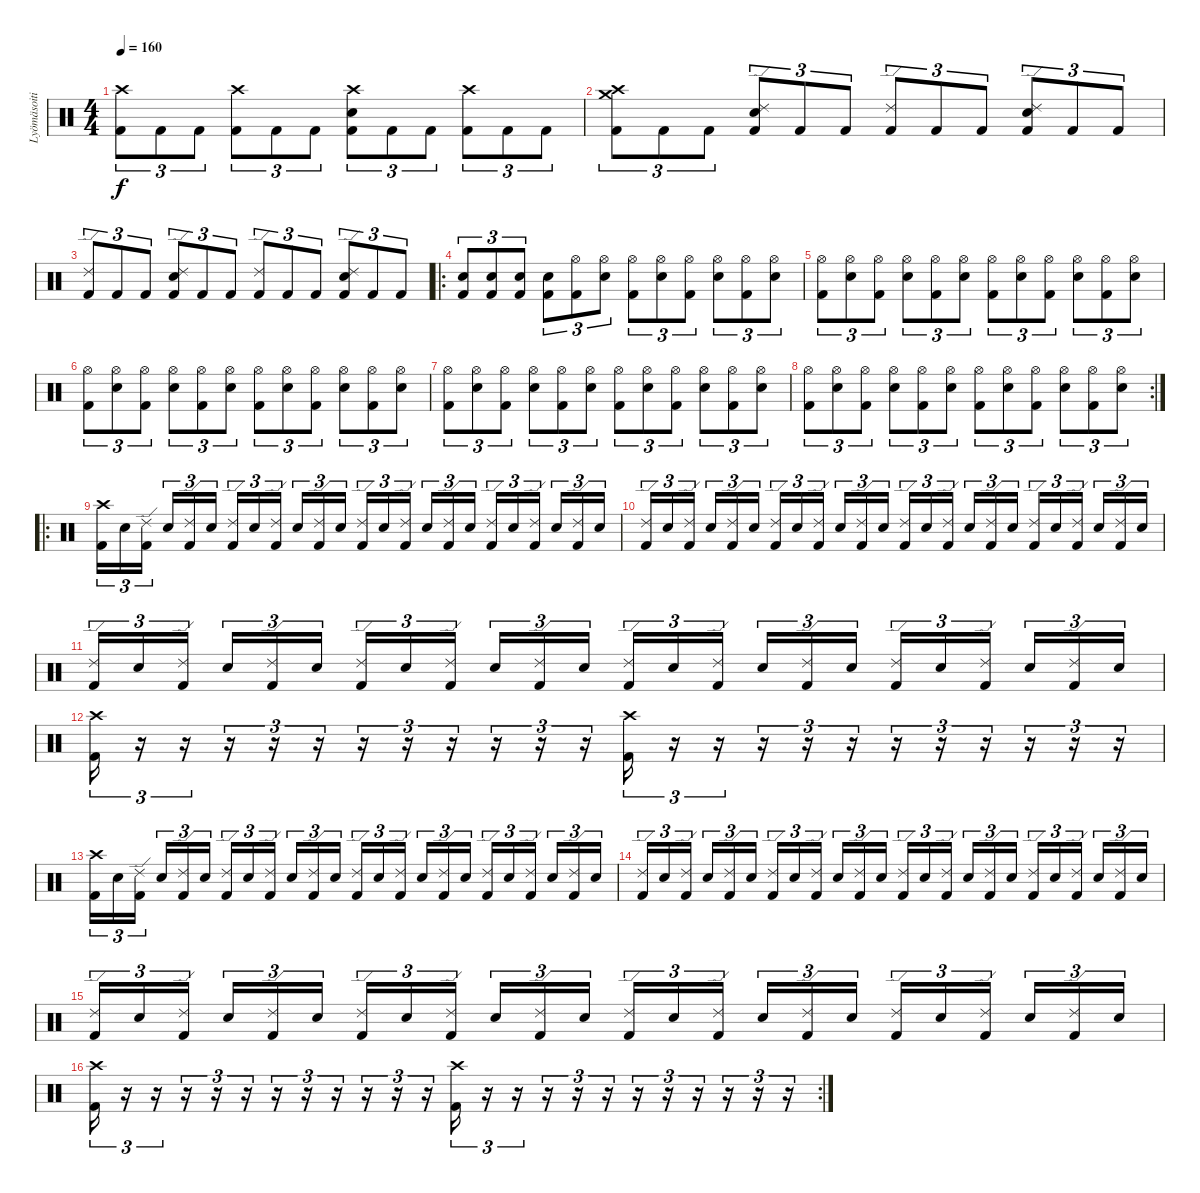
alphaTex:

\track ("Lyömäsoitin" "Lyömäsoiti") {instrument percussion}
\staff {score}
\articulation defaults
\ts (4 4)
\tempo 160
\clef neutral
\ks c
("Crash high (hit)" "Kick (hit) 2").8{tu (3 2) dy f} "Kick (hit) 2".8{tu (3 2)} "Kick (hit) 2".8{tu (3 2)} ("Crash high (hit)" "Kick (hit) 2").8{tu (3 2)} "Kick (hit) 2".8{tu (3 2)} "Kick (hit) 2".8{tu (3 2)} ("Crash high (hit)" "Snare (hit) 2" "Kick (hit) 2").8{tu (3 2)} "Kick (hit) 2".8{tu (3 2)} "Kick (hit) 2".8{tu (3 2)} ("Crash high (hit)" "Kick (hit) 2").8{tu (3 2)} "Kick (hit) 2".8{tu (3 2)} "Kick (hit) 2".8{tu (3 2)} |
("Crash medium (hit)" "Crash high (hit)" "Kick (hit) 2").8{tu (3 2)} "Kick (hit) 2".8{tu (3 2)} "Kick (hit) 2".8{tu (3 2)} ("Ride (edge) 2" "Snare (hit) 2" "Kick (hit) 2").8{tu (3 2)} "Kick (hit) 2".8{tu (3 2)} "Kick (hit) 2".8{tu (3 2)} ("Ride (edge) 2" "Kick (hit) 2").8{tu (3 2)} "Kick (hit) 2".8{tu (3 2)} "Kick (hit) 2".8{tu (3 2)} ("Ride (edge) 2" "Snare (hit) 2" "Kick (hit) 2").8{tu (3 2)} "Kick (hit) 2".8{tu (3 2)} "Kick (hit) 2".8{tu (3 2)} |
("Ride (edge) 2" "Kick (hit) 2").8{tu (3 2)} "Kick (hit) 2".8{tu (3 2)} "Kick (hit) 2".8{tu (3 2)} ("Ride (edge) 2" "Snare (hit) 2" "Kick (hit) 2").8{tu (3 2)} "Kick (hit) 2".8{tu (3 2)} "Kick (hit) 2".8{tu (3 2)} ("Ride (edge) 2" "Kick (hit) 2").8{tu (3 2)} "Kick (hit) 2".8{tu (3 2)} "Kick (hit) 2".8{tu (3 2)} ("Ride (edge) 2" "Snare (hit) 2" "Kick (hit) 2").8{tu (3 2)} "Kick (hit) 2".8{tu (3 2)} "Kick (hit) 2".8{tu (3 2)} |
\ro
("Snare (hit) 2" "Kick (hit) 2").8{tu (3 2)} ("Snare (hit) 2" "Kick (hit) 2").8{tu (3 2)} ("Snare (hit) 2" "Kick (hit) 2").8{tu (3 2)} ("Snare (hit) 2" "Kick (hit) 2").8{tu (3 2)} ("Hi-Hat (open)" "Kick (hit) 2").8{tu (3 2)} ("Hi-Hat (open)" "Snare (hit) 2").8{tu (3 2)} ("Hi-Hat (open)" "Kick (hit) 2").8{tu (3 2)} ("Hi-Hat (open)" "Snare (hit) 2").8{tu (3 2)} ("Hi-Hat (open)" "Kick (hit) 2").8{tu (3 2)} ("Hi-Hat (open)" "Snare (hit) 2").8{tu (3 2)} ("Hi-Hat (open)" "Kick (hit) 2").8{tu (3 2)} ("Hi-Hat (open)" "Snare (hit) 2").8{tu (3 2)} |
("Hi-Hat (open)" "Kick (hit) 2").8{tu (3 2)} ("Hi-Hat (open)" "Snare (hit) 2").8{tu (3 2)} ("Hi-Hat (open)" "Kick (hit) 2").8{tu (3 2)} ("Hi-Hat (open)" "Snare (hit) 2").8{tu (3 2)} ("Hi-Hat (open)" "Kick (hit) 2").8{tu (3 2)} ("Hi-Hat (open)" "Snare (hit) 2").8{tu (3 2)} ("Hi-Hat (open)" "Kick (hit) 2").8{tu (3 2)} ("Hi-Hat (open)" "Snare (hit) 2").8{tu (3 2)} ("Hi-Hat (open)" "Kick (hit) 2").8{tu (3 2)} ("Hi-Hat (open)" "Snare (hit) 2").8{tu (3 2)} ("Hi-Hat (open)" "Kick (hit) 2").8{tu (3 2)} ("Hi-Hat (open)" "Snare (hit) 2").8{tu (3 2)} |
("Hi-Hat (open)" "Kick (hit) 2").8{tu (3 2)} ("Hi-Hat (open)" "Snare (hit) 2").8{tu (3 2)} ("Hi-Hat (open)" "Kick (hit) 2").8{tu (3 2)} ("Hi-Hat (open)" "Snare (hit) 2").8{tu (3 2)} ("Hi-Hat (open)" "Kick (hit) 2").8{tu (3 2)} ("Hi-Hat (open)" "Snare (hit) 2").8{tu (3 2)} ("Hi-Hat (open)" "Kick (hit) 2").8{tu (3 2)} ("Hi-Hat (open)" "Snare (hit) 2").8{tu (3 2)} ("Hi-Hat (open)" "Kick (hit) 2").8{tu (3 2)} ("Hi-Hat (open)" "Snare (hit) 2").8{tu (3 2)} ("Hi-Hat (open)" "Kick (hit) 2").8{tu (3 2)} ("Hi-Hat (open)" "Snare (hit) 2").8{tu (3 2)} |
("Hi-Hat (open)" "Kick (hit) 2").8{tu (3 2)} ("Hi-Hat (open)" "Snare (hit) 2").8{tu (3 2)} ("Hi-Hat (open)" "Kick (hit) 2").8{tu (3 2)} ("Hi-Hat (open)" "Snare (hit) 2").8{tu (3 2)} ("Hi-Hat (open)" "Kick (hit) 2").8{tu (3 2)} ("Hi-Hat (open)" "Snare (hit) 2").8{tu (3 2)} ("Hi-Hat (open)" "Kick (hit) 2").8{tu (3 2)} ("Hi-Hat (open)" "Snare (hit) 2").8{tu (3 2)} ("Hi-Hat (open)" "Kick (hit) 2").8{tu (3 2)} ("Hi-Hat (open)" "Snare (hit) 2").8{tu (3 2)} ("Hi-Hat (open)" "Kick (hit) 2").8{tu (3 2)} ("Hi-Hat (open)" "Snare (hit) 2").8{tu (3 2)} |
\rc 2
("Hi-Hat (open)" "Kick (hit) 2").8{tu (3 2)} ("Hi-Hat (open)" "Snare (hit) 2").8{tu (3 2)} ("Hi-Hat (open)" "Kick (hit) 2").8{tu (3 2)} ("Hi-Hat (open)" "Snare (hit) 2").8{tu (3 2)} ("Hi-Hat (open)" "Kick (hit) 2").8{tu (3 2)} ("Hi-Hat (open)" "Snare (hit) 2").8{tu (3 2)} ("Hi-Hat (open)" "Kick (hit) 2").8{tu (3 2)} ("Hi-Hat (open)" "Snare (hit) 2").8{tu (3 2)} ("Hi-Hat (open)" "Kick (hit) 2").8{tu (3 2)} ("Hi-Hat (open)" "Snare (hit) 2").8{tu (3 2)} ("Hi-Hat (open)" "Kick (hit) 2").8{tu (3 2)} ("Hi-Hat (open)" "Snare (hit) 2").8{tu (3 2)} |
\ro
("Crash high (hit)" "Kick (hit) 2").16{tu (3 2)} "Snare (hit) 2".16{tu (3 2)} ("Ride (edge) 2" "Kick (hit) 2").16{tu (3 2) beam splitsecondary} "Snare (hit) 2".16{tu (3 2)} ("Ride (edge) 2" "Kick (hit) 2").16{tu (3 2)} "Snare (hit) 2".16{tu (3 2)} ("Ride (edge) 2" "Kick (hit) 2").16{tu (3 2)} "Snare (hit) 2".16{tu (3 2)} ("Ride (edge) 2" "Kick (hit) 2").16{tu (3 2) beam splitsecondary} "Snare (hit) 2".16{tu (3 2)} ("Ride (edge) 2" "Kick (hit) 2").16{tu (3 2)} "Snare (hit) 2".16{tu (3 2)} ("Ride (edge) 2" "Kick (hit) 2").16{tu (3 2)} "Snare (hit) 2".16{tu (3 2)} ("Ride (edge) 2" "Kick (hit) 2").16{tu (3 2) beam splitsecondary} "Snare (hit) 2".16{tu (3 2)} ("Ride (edge) 2" "Kick (hit) 2").16{tu (3 2)} "Snare (hit) 2".16{tu (3 2)} ("Ride (edge) 2" "Kick (hit) 2").16{tu (3 2)} "Snare (hit) 2".16{tu (3 2)} ("Ride (edge) 2" "Kick (hit) 2").16{tu (3 2) beam splitsecondary} "Snare (hit) 2".16{tu (3 2)} ("Ride (edge) 2" "Kick (hit) 2").16{tu (3 2)} "Snare (hit) 2".16{tu (3 2)} |
("Ride (edge) 2" "Kick (hit) 2").16{tu (3 2)} "Snare (hit) 2".16{tu (3 2)} ("Ride (edge) 2" "Kick (hit) 2").16{tu (3 2) beam splitsecondary} "Snare (hit) 2".16{tu (3 2)} ("Ride (edge) 2" "Kick (hit) 2").16{tu (3 2)} "Snare (hit) 2".16{tu (3 2)} ("Ride (edge) 2" "Kick (hit) 2").16{tu (3 2)} "Snare (hit) 2".16{tu (3 2)} ("Ride (edge) 2" "Kick (hit) 2").16{tu (3 2) beam splitsecondary} "Snare (hit) 2".16{tu (3 2)} ("Ride (edge) 2" "Kick (hit) 2").16{tu (3 2)} "Snare (hit) 2".16{tu (3 2)} ("Ride (edge) 2" "Kick (hit) 2").16{tu (3 2)} "Snare (hit) 2".16{tu (3 2)} ("Ride (edge) 2" "Kick (hit) 2").16{tu (3 2) beam splitsecondary} "Snare (hit) 2".16{tu (3 2)} ("Ride (edge) 2" "Kick (hit) 2").16{tu (3 2)} "Snare (hit) 2".16{tu (3 2)} ("Ride (edge) 2" "Kick (hit) 2").16{tu (3 2)} "Snare (hit) 2".16{tu (3 2)} ("Ride (edge) 2" "Kick (hit) 2").16{tu (3 2) beam splitsecondary} "Snare (hit) 2".16{tu (3 2)} ("Ride (edge) 2" "Kick (hit) 2").16{tu (3 2)} "Snare (hit) 2".16{tu (3 2)} |
("Ride (edge) 2" "Kick (hit) 2").16{tu (3 2)} "Snare (hit) 2".16{tu (3 2)} ("Ride (edge) 2" "Kick (hit) 2").16{tu (3 2) beam splitsecondary} "Snare (hit) 2".16{tu (3 2)} ("Ride (edge) 2" "Kick (hit) 2").16{tu (3 2)} "Snare (hit) 2".16{tu (3 2)} ("Ride (edge) 2" "Kick (hit) 2").16{tu (3 2)} "Snare (hit) 2".16{tu (3 2)} ("Ride (edge) 2" "Kick (hit) 2").16{tu (3 2) beam splitsecondary} "Snare (hit) 2".16{tu (3 2)} ("Ride (edge) 2" "Kick (hit) 2").16{tu (3 2)} "Snare (hit) 2".16{tu (3 2)} ("Ride (edge) 2" "Kick (hit) 2").16{tu (3 2)} "Snare (hit) 2".16{tu (3 2)} ("Ride (edge) 2" "Kick (hit) 2").16{tu (3 2) beam splitsecondary} "Snare (hit) 2".16{tu (3 2)} ("Ride (edge) 2" "Kick (hit) 2").16{tu (3 2)} "Snare (hit) 2".16{tu (3 2)} ("Ride (edge) 2" "Kick (hit) 2").16{tu (3 2)} "Snare (hit) 2".16{tu (3 2)} ("Ride (edge) 2" "Kick (hit) 2").16{tu (3 2) beam splitsecondary} "Snare (hit) 2".16{tu (3 2)} ("Ride (edge) 2" "Kick (hit) 2").16{tu (3 2)} "Snare (hit) 2".16{tu (3 2)} |
("Crash high (hit)" "Kick (hit) 2").16{tu (3 2)} r.16{tu (3 2)} r.16{tu (3 2)} r.16{tu (3 2)} r.16{tu (3 2)} r.16{tu (3 2)} r.16{tu (3 2)} r.16{tu (3 2)} r.16{tu (3 2)} r.16{tu (3 2)} r.16{tu (3 2)} r.16{tu (3 2)} ("Crash high (hit)" "Kick (hit) 2").16{tu (3 2)} r.16{tu (3 2)} r.16{tu (3 2)} r.16{tu (3 2)} r.16{tu (3 2)} r.16{tu (3 2)} r.16{tu (3 2)} r.16{tu (3 2)} r.16{tu (3 2)} r.16{tu (3 2)} r.16{tu (3 2)} r.16{tu (3 2)} |
("Crash high (hit)" "Kick (hit) 2").16{tu (3 2)} "Snare (hit) 2".16{tu (3 2)} ("Ride (edge) 2" "Kick (hit) 2").16{tu (3 2) beam splitsecondary} "Snare (hit) 2".16{tu (3 2)} ("Ride (edge) 2" "Kick (hit) 2").16{tu (3 2)} "Snare (hit) 2".16{tu (3 2)} ("Ride (edge) 2" "Kick (hit) 2").16{tu (3 2)} "Snare (hit) 2".16{tu (3 2)} ("Ride (edge) 2" "Kick (hit) 2").16{tu (3 2) beam splitsecondary} "Snare (hit) 2".16{tu (3 2)} ("Ride (edge) 2" "Kick (hit) 2").16{tu (3 2)} "Snare (hit) 2".16{tu (3 2)} ("Ride (edge) 2" "Kick (hit) 2").16{tu (3 2)} "Snare (hit) 2".16{tu (3 2)} ("Ride (edge) 2" "Kick (hit) 2").16{tu (3 2) beam splitsecondary} "Snare (hit) 2".16{tu (3 2)} ("Ride (edge) 2" "Kick (hit) 2").16{tu (3 2)} "Snare (hit) 2".16{tu (3 2)} ("Ride (edge) 2" "Kick (hit) 2").16{tu (3 2)} "Snare (hit) 2".16{tu (3 2)} ("Ride (edge) 2" "Kick (hit) 2").16{tu (3 2) beam splitsecondary} "Snare (hit) 2".16{tu (3 2)} ("Ride (edge) 2" "Kick (hit) 2").16{tu (3 2)} "Snare (hit) 2".16{tu (3 2)} |
("Ride (edge) 2" "Kick (hit) 2").16{tu (3 2)} "Snare (hit) 2".16{tu (3 2)} ("Ride (edge) 2" "Kick (hit) 2").16{tu (3 2) beam splitsecondary} "Snare (hit) 2".16{tu (3 2)} ("Ride (edge) 2" "Kick (hit) 2").16{tu (3 2)} "Snare (hit) 2".16{tu (3 2)} ("Ride (edge) 2" "Kick (hit) 2").16{tu (3 2)} "Snare (hit) 2".16{tu (3 2)} ("Ride (edge) 2" "Kick (hit) 2").16{tu (3 2) beam splitsecondary} "Snare (hit) 2".16{tu (3 2)} ("Ride (edge) 2" "Kick (hit) 2").16{tu (3 2)} "Snare (hit) 2".16{tu (3 2)} ("Ride (edge) 2" "Kick (hit) 2").16{tu (3 2)} "Snare (hit) 2".16{tu (3 2)} ("Ride (edge) 2" "Kick (hit) 2").16{tu (3 2) beam splitsecondary} "Snare (hit) 2".16{tu (3 2)} ("Ride (edge) 2" "Kick (hit) 2").16{tu (3 2)} "Snare (hit) 2".16{tu (3 2)} ("Ride (edge) 2" "Kick (hit) 2").16{tu (3 2)} "Snare (hit) 2".16{tu (3 2)} ("Ride (edge) 2" "Kick (hit) 2").16{tu (3 2) beam splitsecondary} "Snare (hit) 2".16{tu (3 2)} ("Ride (edge) 2" "Kick (hit) 2").16{tu (3 2)} "Snare (hit) 2".16{tu (3 2)} |
("Ride (edge) 2" "Kick (hit) 2").16{tu (3 2)} "Snare (hit) 2".16{tu (3 2)} ("Ride (edge) 2" "Kick (hit) 2").16{tu (3 2) beam splitsecondary} "Snare (hit) 2".16{tu (3 2)} ("Ride (edge) 2" "Kick (hit) 2").16{tu (3 2)} "Snare (hit) 2".16{tu (3 2)} ("Ride (edge) 2" "Kick (hit) 2").16{tu (3 2)} "Snare (hit) 2".16{tu (3 2)} ("Ride (edge) 2" "Kick (hit) 2").16{tu (3 2) beam splitsecondary} "Snare (hit) 2".16{tu (3 2)} ("Ride (edge) 2" "Kick (hit) 2").16{tu (3 2)} "Snare (hit) 2".16{tu (3 2)} ("Ride (edge) 2" "Kick (hit) 2").16{tu (3 2)} "Snare (hit) 2".16{tu (3 2)} ("Ride (edge) 2" "Kick (hit) 2").16{tu (3 2) beam splitsecondary} "Snare (hit) 2".16{tu (3 2)} ("Ride (edge) 2" "Kick (hit) 2").16{tu (3 2)} "Snare (hit) 2".16{tu (3 2)} ("Ride (edge) 2" "Kick (hit) 2").16{tu (3 2)} "Snare (hit) 2".16{tu (3 2)} ("Ride (edge) 2" "Kick (hit) 2").16{tu (3 2) beam splitsecondary} "Snare (hit) 2".16{tu (3 2)} ("Ride (edge) 2" "Kick (hit) 2").16{tu (3 2)} "Snare (hit) 2".16{tu (3 2)} |
\rc 2
("Crash high (hit)" "Kick (hit) 2").16{tu (3 2)} r.16{tu (3 2)} r.16{tu (3 2)} r.16{tu (3 2)} r.16{tu (3 2)} r.16{tu (3 2)} r.16{tu (3 2)} r.16{tu (3 2)} r.16{tu (3 2)} r.16{tu (3 2)} r.16{tu (3 2)} r.16{tu (3 2)} ("Crash high (hit)" "Kick (hit) 2").16{tu (3 2)} r.16{tu (3 2)} r.16{tu (3 2)} r.16{tu (3 2)} r.16{tu (3 2)} r.16{tu (3 2)} r.16{tu (3 2)} r.16{tu (3 2)} r.16{tu (3 2)} r.16{tu (3 2)} r.16{tu (3 2)} r.16{tu (3 2)}
